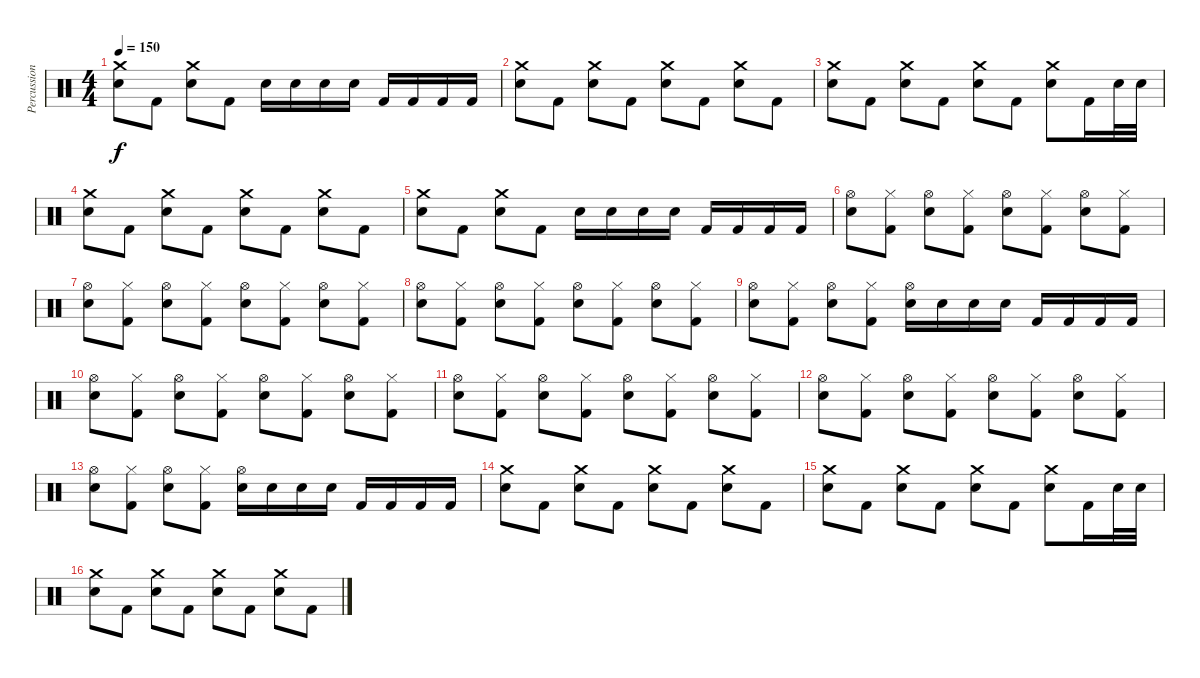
\track ("Percussion" "Percussion") {instrument percussion}
\staff {score}
\articulation defaults
\ts (4 4)
\tempo 150
\clef neutral
\ks c
("Crash medium (hit)" "Electric Snare (hit)").8{dy f} "Kick (hit) 2".8 ("Crash medium (hit)" "Electric Snare (hit)").8 "Kick (hit) 2".8 "Electric Snare (hit)".16 "Electric Snare (hit)".16 "Electric Snare (hit)".16 "Electric Snare (hit)".16 "Kick (hit) 2".16 "Kick (hit) 2".16 "Kick (hit) 2".16 "Kick (hit) 2".16 |
("Crash medium (hit)" "Electric Snare (hit)").8 "Kick (hit) 2".8 ("Crash medium (hit)" "Electric Snare (hit)").8 "Kick (hit) 2".8 ("Crash medium (hit)" "Electric Snare (hit)").8 "Kick (hit) 2".8 ("Crash medium (hit)" "Electric Snare (hit)").8 "Kick (hit) 2".8 |
("Crash medium (hit)" "Electric Snare (hit)").8 "Kick (hit) 2".8 ("Crash medium (hit)" "Electric Snare (hit)").8 "Kick (hit) 2".8 ("Crash medium (hit)" "Electric Snare (hit)").8 "Kick (hit) 2".8 ("Crash medium (hit)" "Electric Snare (hit)").8 "Kick (hit) 2".16 "Electric Snare (hit)".32 "Electric Snare (hit)".32 |
("Crash medium (hit)" "Electric Snare (hit)").8 "Kick (hit) 2".8 ("Crash medium (hit)" "Electric Snare (hit)").8 "Kick (hit) 2".8 ("Crash medium (hit)" "Electric Snare (hit)").8 "Kick (hit) 2".8 ("Crash medium (hit)" "Electric Snare (hit)").8 "Kick (hit) 2".8 |
("Crash medium (hit)" "Electric Snare (hit)").8 "Kick (hit) 2".8 ("Crash medium (hit)" "Electric Snare (hit)").8 "Kick (hit) 2".8 "Electric Snare (hit)".16 "Electric Snare (hit)".16 "Electric Snare (hit)".16 "Electric Snare (hit)".16 "Kick (hit) 2".16 "Kick (hit) 2".16 "Kick (hit) 2".16 "Kick (hit) 2".16 |
("Hi-Hat (open)" "Electric Snare (hit)").8 ("Hi-Hat (closed)" "Kick (hit) 2").8 ("Hi-Hat (open)" "Electric Snare (hit)").8 ("Hi-Hat (closed)" "Kick (hit) 2").8 ("Hi-Hat (open)" "Electric Snare (hit)").8 ("Hi-Hat (closed)" "Kick (hit) 2").8 ("Hi-Hat (open)" "Electric Snare (hit)").8 ("Hi-Hat (closed)" "Kick (hit) 2").8 |
("Hi-Hat (open)" "Electric Snare (hit)").8 ("Hi-Hat (closed)" "Kick (hit) 2").8 ("Hi-Hat (open)" "Electric Snare (hit)").8 ("Hi-Hat (closed)" "Kick (hit) 2").8 ("Hi-Hat (open)" "Electric Snare (hit)").8 ("Hi-Hat (closed)" "Kick (hit) 2").8 ("Hi-Hat (open)" "Electric Snare (hit)").8 ("Hi-Hat (closed)" "Kick (hit) 2").8 |
("Hi-Hat (open)" "Electric Snare (hit)").8 ("Hi-Hat (closed)" "Kick (hit) 2").8 ("Hi-Hat (open)" "Electric Snare (hit)").8 ("Hi-Hat (closed)" "Kick (hit) 2").8 ("Hi-Hat (open)" "Electric Snare (hit)").8 ("Hi-Hat (closed)" "Kick (hit) 2").8 ("Hi-Hat (open)" "Electric Snare (hit)").8 ("Hi-Hat (closed)" "Kick (hit) 2").8 |
("Hi-Hat (open)" "Electric Snare (hit)").8 ("Hi-Hat (closed)" "Kick (hit) 2").8 ("Hi-Hat (open)" "Electric Snare (hit)").8 ("Hi-Hat (closed)" "Kick (hit) 2").8 ("Hi-Hat (open)" "Electric Snare (hit)").16 "Electric Snare (hit)".16 "Electric Snare (hit)".16 "Electric Snare (hit)".16 "Kick (hit) 2".16 "Kick (hit) 2".16 "Kick (hit) 2".16 "Kick (hit) 2".16 |
("Hi-Hat (open)" "Electric Snare (hit)").8 ("Hi-Hat (closed)" "Kick (hit) 2").8 ("Hi-Hat (open)" "Electric Snare (hit)").8 ("Hi-Hat (closed)" "Kick (hit) 2").8 ("Hi-Hat (open)" "Electric Snare (hit)").8 ("Hi-Hat (closed)" "Kick (hit) 2").8 ("Hi-Hat (open)" "Electric Snare (hit)").8 ("Hi-Hat (closed)" "Kick (hit) 2").8 |
("Hi-Hat (open)" "Electric Snare (hit)").8 ("Hi-Hat (closed)" "Kick (hit) 2").8 ("Hi-Hat (open)" "Electric Snare (hit)").8 ("Hi-Hat (closed)" "Kick (hit) 2").8 ("Hi-Hat (open)" "Electric Snare (hit)").8 ("Hi-Hat (closed)" "Kick (hit) 2").8 ("Hi-Hat (open)" "Electric Snare (hit)").8 ("Hi-Hat (closed)" "Kick (hit) 2").8 |
("Hi-Hat (open)" "Electric Snare (hit)").8 ("Hi-Hat (closed)" "Kick (hit) 2").8 ("Hi-Hat (open)" "Electric Snare (hit)").8 ("Hi-Hat (closed)" "Kick (hit) 2").8 ("Hi-Hat (open)" "Electric Snare (hit)").8 ("Hi-Hat (closed)" "Kick (hit) 2").8 ("Hi-Hat (open)" "Electric Snare (hit)").8 ("Hi-Hat (closed)" "Kick (hit) 2").8 |
("Hi-Hat (open)" "Electric Snare (hit)").8 ("Hi-Hat (closed)" "Kick (hit) 2").8 ("Hi-Hat (open)" "Electric Snare (hit)").8 ("Hi-Hat (closed)" "Kick (hit) 2").8 ("Hi-Hat (open)" "Electric Snare (hit)").16 "Electric Snare (hit)".16 "Electric Snare (hit)".16 "Electric Snare (hit)".16 "Kick (hit) 2".16 "Kick (hit) 2".16 "Kick (hit) 2".16 "Kick (hit) 2".16 |
("Crash medium (hit)" "Electric Snare (hit)").8 "Kick (hit) 2".8 ("Crash medium (hit)" "Electric Snare (hit)").8 "Kick (hit) 2".8 ("Crash medium (hit)" "Electric Snare (hit)").8 "Kick (hit) 2".8 ("Crash medium (hit)" "Electric Snare (hit)").8 "Kick (hit) 2".8 |
("Crash medium (hit)" "Electric Snare (hit)").8 "Kick (hit) 2".8 ("Crash medium (hit)" "Electric Snare (hit)").8 "Kick (hit) 2".8 ("Crash medium (hit)" "Electric Snare (hit)").8 "Kick (hit) 2".8 ("Crash medium (hit)" "Electric Snare (hit)").8 "Kick (hit) 2".16 "Electric Snare (hit)".32 "Electric Snare (hit)".32 |
("Crash medium (hit)" "Electric Snare (hit)").8 "Kick (hit) 2".8 ("Crash medium (hit)" "Electric Snare (hit)").8 "Kick (hit) 2".8 ("Crash medium (hit)" "Electric Snare (hit)").8 "Kick (hit) 2".8 ("Crash medium (hit)" "Electric Snare (hit)").8 "Kick (hit) 2".8
